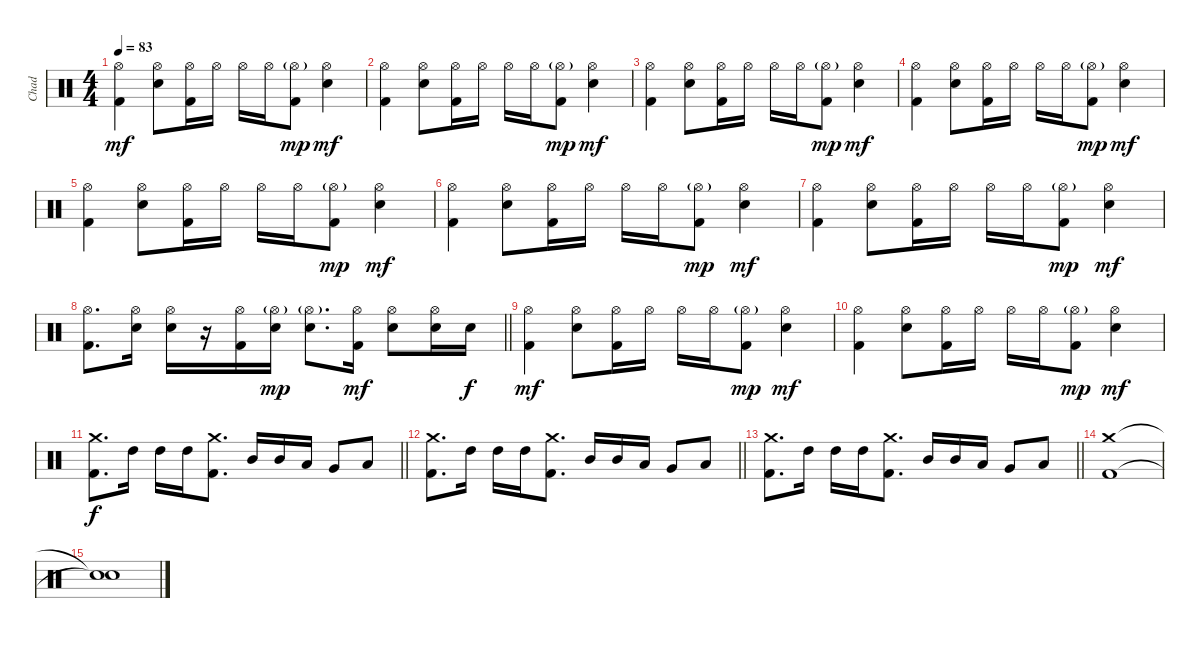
\track ("Chad" "Chad") {instrument percussion}
\staff {score}
\articulation defaults
\ts (4 4)
\tempo 83
\clef neutral
\ks c
("Hi-Hat (open)" "Kick (hit) 2").4{dy mf} ("Hi-Hat (open)" "Electric Snare (hit)").8 ("Hi-Hat (open)" "Kick (hit) 2").16 "Hi-Hat (open)".16 "Hi-Hat (open)".16 "Hi-Hat (open)".16 ("Hi-Hat (open)"{g} "Kick (hit) 2").8{dy mp} ("Hi-Hat (open)" "Electric Snare (hit)").4{dy mf} |
("Hi-Hat (open)" "Kick (hit) 2").4 ("Hi-Hat (open)" "Electric Snare (hit)").8 ("Hi-Hat (open)" "Kick (hit) 2").16 "Hi-Hat (open)".16 "Hi-Hat (open)".16 "Hi-Hat (open)".16 ("Hi-Hat (open)"{g} "Kick (hit) 2").8{dy mp} ("Hi-Hat (open)" "Electric Snare (hit)").4{dy mf} |
("Hi-Hat (open)" "Kick (hit) 2").4 ("Hi-Hat (open)" "Electric Snare (hit)").8 ("Hi-Hat (open)" "Kick (hit) 2").16 "Hi-Hat (open)".16 "Hi-Hat (open)".16 "Hi-Hat (open)".16 ("Hi-Hat (open)"{g} "Kick (hit) 2").8{dy mp} ("Hi-Hat (open)" "Electric Snare (hit)").4{dy mf} |
("Hi-Hat (open)" "Kick (hit) 2").4 ("Hi-Hat (open)" "Electric Snare (hit)").8 ("Hi-Hat (open)" "Kick (hit) 2").16 "Hi-Hat (open)".16 "Hi-Hat (open)".16 "Hi-Hat (open)".16 ("Hi-Hat (open)"{g} "Kick (hit) 2").8{dy mp} ("Hi-Hat (open)" "Electric Snare (hit)").4{dy mf} |
("Hi-Hat (open)" "Kick (hit) 2").4 ("Hi-Hat (open)" "Electric Snare (hit)").8 ("Hi-Hat (open)" "Kick (hit) 2").16 "Hi-Hat (open)".16 "Hi-Hat (open)".16 "Hi-Hat (open)".16 ("Hi-Hat (open)"{g} "Kick (hit) 2").8{dy mp} ("Hi-Hat (open)" "Electric Snare (hit)").4{dy mf} |
("Hi-Hat (open)" "Kick (hit) 2").4 ("Hi-Hat (open)" "Electric Snare (hit)").8 ("Hi-Hat (open)" "Kick (hit) 2").16 "Hi-Hat (open)".16 "Hi-Hat (open)".16 "Hi-Hat (open)".16 ("Hi-Hat (open)"{g} "Kick (hit) 2").8{dy mp} ("Hi-Hat (open)" "Electric Snare (hit)").4{dy mf} |
("Hi-Hat (open)" "Kick (hit) 2").4 ("Hi-Hat (open)" "Electric Snare (hit)").8 ("Hi-Hat (open)" "Kick (hit) 2").16 "Hi-Hat (open)".16 "Hi-Hat (open)".16 "Hi-Hat (open)".16 ("Hi-Hat (open)"{g} "Kick (hit) 2").8{dy mp} ("Hi-Hat (open)" "Electric Snare (hit)").4{dy mf} |
\barLineRight lightlight
("Hi-Hat (open)" "Kick (hit) 2").8{d} ("Hi-Hat (open)" "Electric Snare (hit)").16 ("Hi-Hat (open)" "Electric Snare (hit)").16 r.16 ("Hi-Hat (open)" "Kick (hit) 2").16 ("Hi-Hat (open)"{g} "Electric Snare (hit)").16{dy mp} ("Hi-Hat (open)"{g} "Electric Snare (hit)").8{d} ("Hi-Hat (open)" "Kick (hit) 2").16{dy mf} ("Hi-Hat (open)" "Electric Snare (hit)").8 ("Hi-Hat (open)" "Electric Snare (hit)").16 "Electric Snare (hit)".16{dy f} |
\section ("" "")
("Hi-Hat (open)" "Kick (hit) 2").4{dy mf} ("Hi-Hat (open)" "Electric Snare (hit)").8 ("Hi-Hat (open)" "Kick (hit) 2").16 "Hi-Hat (open)".16 "Hi-Hat (open)".16 "Hi-Hat (open)".16 ("Hi-Hat (open)"{g} "Kick (hit) 2").8{dy mp} ("Hi-Hat (open)" "Electric Snare (hit)").4{dy mf} |
("Hi-Hat (open)" "Kick (hit) 2").4 ("Hi-Hat (open)" "Electric Snare (hit)").8 ("Hi-Hat (open)" "Kick (hit) 2").16 "Hi-Hat (open)".16 "Hi-Hat (open)".16 "Hi-Hat (open)".16 ("Hi-Hat (open)"{g} "Kick (hit) 2").8{dy mp} ("Hi-Hat (open)" "Electric Snare (hit)").4{dy mf} |
\barLineRight lightlight
("Crash medium (hit)" "Kick (hit) 2").8{d dy f} "High Tom (hit)".16 "High Tom (hit)".16 "High Tom (hit)".16 ("Crash medium (hit)" "Kick (hit) 2").8{d} "Mid Tom (hit)".16 "Mid Tom (hit)".16 "Low Tom (hit)".16 "Very Low Tom (hit)".8 "Low Floor Tom (hit)".8 |
\barLineRight lightlight
("Crash medium (hit)" "Kick (hit) 2").8{d} "High Tom (hit)".16 "High Tom (hit)".16 "High Tom (hit)".16 ("Crash medium (hit)" "Kick (hit) 2").8{d} "Mid Tom (hit)".16 "Mid Tom (hit)".16 "Low Tom (hit)".16 "Very Low Tom (hit)".8 "Low Floor Tom (hit)".8 |
\barLineRight lightlight
("Crash medium (hit)" "Kick (hit) 2").8{d} "High Tom (hit)".16 "High Tom (hit)".16 "High Tom (hit)".16 ("Crash medium (hit)" "Kick (hit) 2").8{d} "Mid Tom (hit)".16 "Mid Tom (hit)".16 "Low Tom (hit)".16 "Very Low Tom (hit)".8 "Low Floor Tom (hit)".8 |
("Crash medium (hit)" "Kick (hit) 2").1 |
("Snare (hit)"{t} "Snare (hit)"{t}).1
